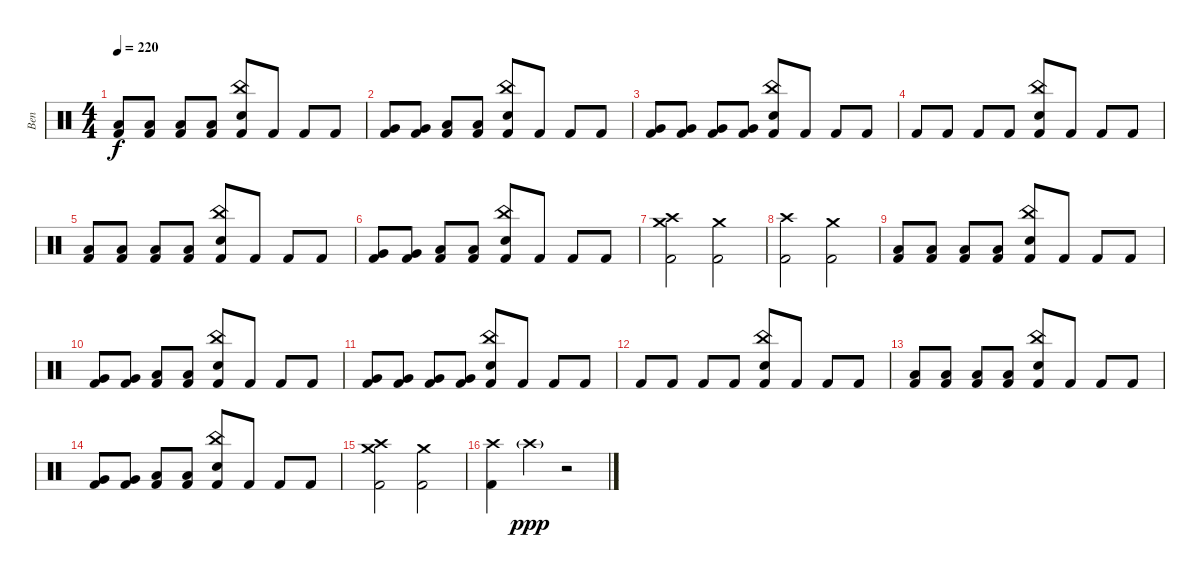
\track ("Ben" "Ben") {instrument percussion}
\staff {score}
\articulation defaults
\ts (4 4)
\tempo 220
\clef neutral
\ks c
("Low Tom (hit)" "Kick (hit) 2").8{dy f} ("Low Tom (hit)" "Kick (hit) 2").8 ("Low Tom (hit)" "Kick (hit) 2").8 ("Low Tom (hit)" "Kick (hit) 2").8 ("China (hit)" "Snare (hit) 2" "Kick (hit) 2").8 "Kick (hit) 2".8 "Kick (hit) 2".8 "Kick (hit) 2".8 |
("Very Low Tom (hit)" "Kick (hit) 2").8 ("Very Low Tom (hit)" "Kick (hit) 2").8 ("Low Floor Tom (hit)" "Kick (hit) 2").8 ("Low Floor Tom (hit)" "Kick (hit) 2").8 ("China (hit)" "Snare (hit) 2" "Kick (hit) 2").8 "Kick (hit) 2".8 "Kick (hit) 2".8 "Kick (hit) 2".8 |
("Very Low Tom (hit)" "Kick (hit) 2").8 ("Very Low Tom (hit)" "Kick (hit) 2").8 ("Very Low Tom (hit)" "Kick (hit) 2").8 ("Very Low Tom (hit)" "Kick (hit) 2").8 ("China (hit)" "Snare (hit) 2" "Kick (hit) 2").8 "Kick (hit) 2".8 "Kick (hit) 2".8 "Kick (hit) 2".8 |
"Kick (hit) 2".8 "Kick (hit) 2".8 "Kick (hit) 2".8 "Kick (hit) 2".8 ("China (hit)" "Snare (hit) 2" "Kick (hit) 2").8 "Kick (hit) 2".8 "Kick (hit) 2".8 "Kick (hit) 2".8 |
("Low Tom (hit)" "Kick (hit) 2").8 ("Low Tom (hit)" "Kick (hit) 2").8 ("Low Tom (hit)" "Kick (hit) 2").8 ("Low Tom (hit)" "Kick (hit) 2").8 ("China (hit)" "Snare (hit) 2" "Kick (hit) 2").8 "Kick (hit) 2".8 "Kick (hit) 2".8 "Kick (hit) 2".8 |
("Very Low Tom (hit)" "Kick (hit) 2").8 ("Very Low Tom (hit)" "Kick (hit) 2").8 ("Low Floor Tom (hit)" "Kick (hit) 2").8 ("Low Floor Tom (hit)" "Kick (hit) 2").8 ("China (hit)" "Snare (hit) 2" "Kick (hit) 2").8 "Kick (hit) 2".8 "Kick (hit) 2".8 "Kick (hit) 2".8 |
("Crash medium (hit)" "Crash high (hit)" "Kick (hit) 2").2 ("Crash medium (hit)" "Kick (hit) 2").2 |
("Crash high (hit)" "Kick (hit) 2").2 ("Crash medium (hit)" "Kick (hit) 2").2 |
("Low Tom (hit)" "Kick (hit) 2").8 ("Low Tom (hit)" "Kick (hit) 2").8 ("Low Tom (hit)" "Kick (hit) 2").8 ("Low Tom (hit)" "Kick (hit) 2").8 ("China (hit)" "Snare (hit) 2" "Kick (hit) 2").8 "Kick (hit) 2".8 "Kick (hit) 2".8 "Kick (hit) 2".8 |
("Very Low Tom (hit)" "Kick (hit) 2").8 ("Very Low Tom (hit)" "Kick (hit) 2").8 ("Low Floor Tom (hit)" "Kick (hit) 2").8 ("Low Floor Tom (hit)" "Kick (hit) 2").8 ("China (hit)" "Snare (hit) 2" "Kick (hit) 2").8 "Kick (hit) 2".8 "Kick (hit) 2".8 "Kick (hit) 2".8 |
("Very Low Tom (hit)" "Kick (hit) 2").8 ("Very Low Tom (hit)" "Kick (hit) 2").8 ("Very Low Tom (hit)" "Kick (hit) 2").8 ("Very Low Tom (hit)" "Kick (hit) 2").8 ("China (hit)" "Snare (hit) 2" "Kick (hit) 2").8 "Kick (hit) 2".8 "Kick (hit) 2".8 "Kick (hit) 2".8 |
"Kick (hit) 2".8 "Kick (hit) 2".8 "Kick (hit) 2".8 "Kick (hit) 2".8 ("China (hit)" "Snare (hit) 2" "Kick (hit) 2").8 "Kick (hit) 2".8 "Kick (hit) 2".8 "Kick (hit) 2".8 |
("Low Tom (hit)" "Kick (hit) 2").8 ("Low Tom (hit)" "Kick (hit) 2").8 ("Low Tom (hit)" "Kick (hit) 2").8 ("Low Tom (hit)" "Kick (hit) 2").8 ("China (hit)" "Snare (hit) 2" "Kick (hit) 2").8 "Kick (hit) 2".8 "Kick (hit) 2".8 "Kick (hit) 2".8 |
("Very Low Tom (hit)" "Kick (hit) 2").8 ("Very Low Tom (hit)" "Kick (hit) 2").8 ("Low Floor Tom (hit)" "Kick (hit) 2").8 ("Low Floor Tom (hit)" "Kick (hit) 2").8 ("China (hit)" "Snare (hit) 2" "Kick (hit) 2").8 "Kick (hit) 2".8 "Kick (hit) 2".8 "Kick (hit) 2".8 |
("Crash medium (hit)" "Crash high (hit)" "Kick (hit) 2").2 ("Crash medium (hit)" "Kick (hit) 2").2 |
("Crash high (hit)" "Kick (hit) 2").4 "Crash high (hit)"{g}.4{dy ppp} r.2
